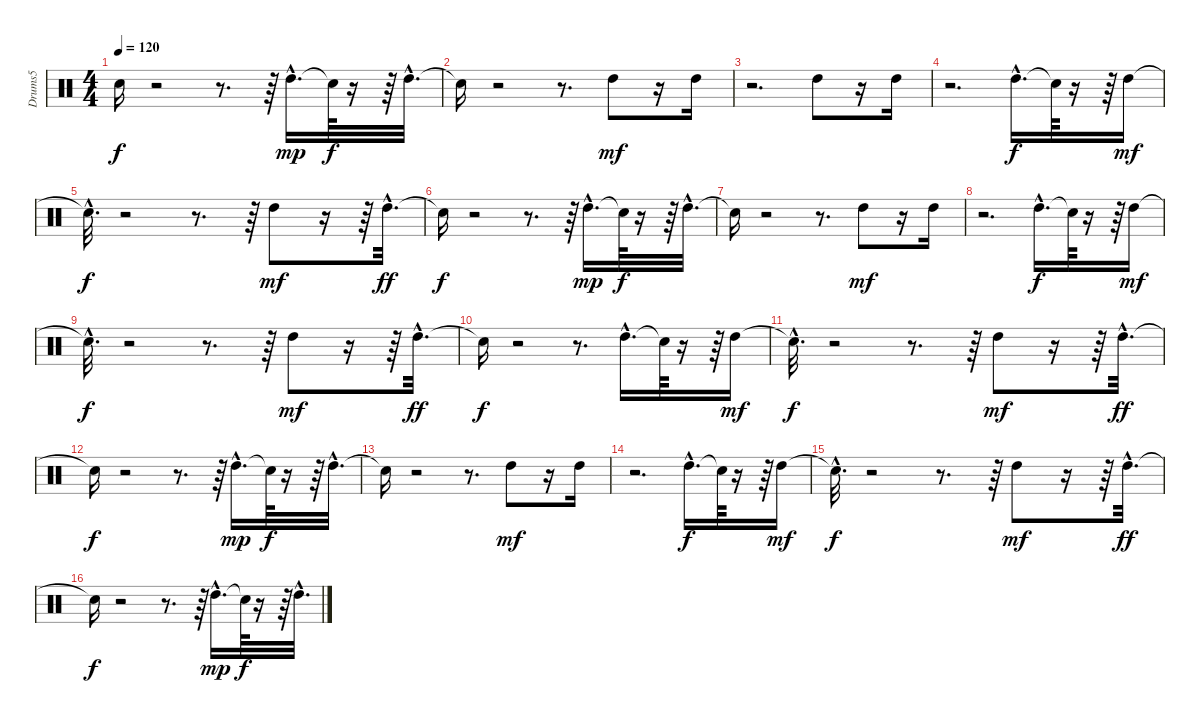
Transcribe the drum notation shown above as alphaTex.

\track ("Drums5" "Drums5") {instrument percussion}
\staff {score}
\articulation defaults
\ts (4 4)
\tempo 120
\clef neutral
\ks c "Snare (hit)"{t}.16{dy f}
r.2 r.8{d} r.64 "High Tom (hit)"{hac}.16{d dy mp} "Snare (hit)"{t}.64{dy f} r.16 r.64 "High Tom (hit)"{hac}.32{d} |
"Snare (hit)"{t}.16 r.2 r.8{d} "High Tom (hit)".8{dy mf} r.16 "High Tom (hit)".16 |
r.2{d} "High Tom (hit)".8 r.16 "High Tom (hit)".16 |
r.2{d} "High Tom (hit)"{hac}.16{d dy f} "Snare (hit)"{t}.64 r.16 r.64 "High Tom (hit)".16{dy mf} |
"Snare (hit)"{hac t}.32{d dy f} r.2 r.8{d} r.64 "High Tom (hit)".8{dy mf} r.16 r.64 "High Tom (hit)"{hac}.32{d dy ff} |
"Snare (hit)"{t}.16{dy f} r.2 r.8{d} r.64 "High Tom (hit)"{hac}.16{d dy mp} "Snare (hit)"{t}.64{dy f} r.16 r.64 "High Tom (hit)"{hac}.32{d} |
"Snare (hit)"{t}.16 r.2 r.8{d} "High Tom (hit)".8{dy mf} r.16 "High Tom (hit)".16 |
r.2{d} "High Tom (hit)"{hac}.16{d dy f} "Snare (hit)"{t}.64 r.16 r.64 "High Tom (hit)".16{dy mf} |
"Snare (hit)"{hac t}.32{d dy f} r.2 r.8{d} r.64 "High Tom (hit)".8{dy mf} r.16 r.64 "High Tom (hit)"{hac}.32{d dy ff} |
"Snare (hit)"{t}.16{dy f} r.2 r.8{d} "High Tom (hit)"{hac}.16{d} "Snare (hit)"{t}.64 r.16 r.64 "High Tom (hit)".16{dy mf} |
"Snare (hit)"{hac t}.32{d dy f} r.2 r.8{d} r.64 "High Tom (hit)".8{dy mf} r.16 r.64 "High Tom (hit)"{hac}.32{d dy ff} |
"Snare (hit)"{t}.16{dy f} r.2 r.8{d} r.64 "High Tom (hit)"{hac}.16{d dy mp} "Snare (hit)"{t}.64{dy f} r.16 r.64 "High Tom (hit)"{hac}.32{d} |
"Snare (hit)"{t}.16 r.2 r.8{d} "High Tom (hit)".8{dy mf} r.16 "High Tom (hit)".16 |
r.2{d} "High Tom (hit)"{hac}.16{d dy f} "Snare (hit)"{t}.64 r.16 r.64 "High Tom (hit)".16{dy mf} |
"Snare (hit)"{hac t}.32{d dy f} r.2 r.8{d} r.64 "High Tom (hit)".8{dy mf} r.16 r.64 "High Tom (hit)"{hac}.32{d dy ff} |
"Snare (hit)"{t}.16{dy f} r.2 r.8{d} r.64 "High Tom (hit)"{hac}.16{d dy mp} "Snare (hit)"{t}.64{dy f} r.16 r.64 "High Tom (hit)"{hac}.32{d}
